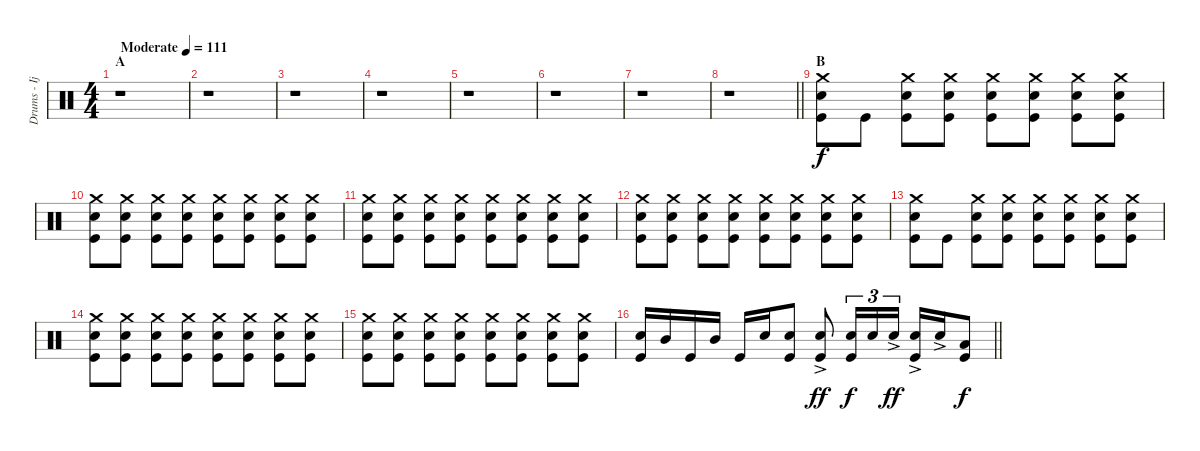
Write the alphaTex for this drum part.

\track ("Drums - Ijichi" "Drums - Ij") {instrument percussion}
\staff {score}
\articulation defaults
\ts (4 4)
\section ("" "A")
\tempo (111 "Moderate")
\clef neutral
\ks c
r.1{dy f} |
r.1 |
r.1 |
r.1 |
r.1 |
r.1 |
r.1 |
\barLineRight lightlight
r.1 |
\section ("" "B")
("Crash medium (hit)" "Electric Snare (hit)" "Kick (hit)").8 "Kick (hit)".8 ("Crash medium (hit)" "Electric Snare (hit)" "Kick (hit)").8{volume 7} ("Crash medium (hit)" "Electric Snare (hit)" "Kick (hit)").8{volume 13} ("Crash medium (hit)" "Electric Snare (hit)" "Kick (hit)").8 ("Crash medium (hit)" "Electric Snare (hit)" "Kick (hit)").8 ("Crash medium (hit)" "Electric Snare (hit)" "Kick (hit)").8 ("Crash medium (hit)" "Electric Snare (hit)" "Kick (hit)").8 |
("Crash medium (hit)" "Electric Snare (hit)" "Kick (hit)").8 ("Crash medium (hit)" "Electric Snare (hit)" "Kick (hit)").8 ("Crash medium (hit)" "Electric Snare (hit)" "Kick (hit)").8 ("Crash medium (hit)" "Electric Snare (hit)" "Kick (hit)").8 ("Crash medium (hit)" "Electric Snare (hit)" "Kick (hit)").8 ("Crash medium (hit)" "Electric Snare (hit)" "Kick (hit)").8 ("Crash medium (hit)" "Electric Snare (hit)" "Kick (hit)").8 ("Crash medium (hit)" "Electric Snare (hit)" "Kick (hit)").8 |
("Crash medium (hit)" "Electric Snare (hit)" "Kick (hit)").8 ("Crash medium (hit)" "Electric Snare (hit)" "Kick (hit)").8 ("Crash medium (hit)" "Electric Snare (hit)" "Kick (hit)").8 ("Crash medium (hit)" "Electric Snare (hit)" "Kick (hit)").8 ("Crash medium (hit)" "Electric Snare (hit)" "Kick (hit)").8 ("Crash medium (hit)" "Electric Snare (hit)" "Kick (hit)").8 ("Crash medium (hit)" "Electric Snare (hit)" "Kick (hit)").8 ("Crash medium (hit)" "Electric Snare (hit)" "Kick (hit)").8 |
("Crash medium (hit)" "Electric Snare (hit)" "Kick (hit)").8 ("Crash medium (hit)" "Electric Snare (hit)" "Kick (hit)").8 ("Crash medium (hit)" "Electric Snare (hit)" "Kick (hit)").8 ("Crash medium (hit)" "Electric Snare (hit)" "Kick (hit)").8 ("Crash medium (hit)" "Electric Snare (hit)" "Kick (hit)").8 ("Crash medium (hit)" "Electric Snare (hit)" "Kick (hit)").8 ("Crash medium (hit)" "Electric Snare (hit)" "Kick (hit)").8 ("Crash medium (hit)" "Electric Snare (hit)" "Kick (hit)").8 |
("Crash medium (hit)" "Electric Snare (hit)" "Kick (hit)").8 "Kick (hit)".8 ("Crash medium (hit)" "Electric Snare (hit)" "Kick (hit)").8{volume 9} ("Crash medium (hit)" "Electric Snare (hit)" "Kick (hit)").8{volume 13} ("Crash medium (hit)" "Electric Snare (hit)" "Kick (hit)").8 ("Crash medium (hit)" "Electric Snare (hit)" "Kick (hit)").8 ("Crash medium (hit)" "Electric Snare (hit)" "Kick (hit)").8 ("Crash medium (hit)" "Electric Snare (hit)" "Kick (hit)").8 |
("Crash medium (hit)" "Electric Snare (hit)" "Kick (hit)").8 ("Crash medium (hit)" "Electric Snare (hit)" "Kick (hit)").8 ("Crash medium (hit)" "Electric Snare (hit)" "Kick (hit)").8 ("Crash medium (hit)" "Electric Snare (hit)" "Kick (hit)").8 ("Crash medium (hit)" "Electric Snare (hit)" "Kick (hit)").8 ("Crash medium (hit)" "Electric Snare (hit)" "Kick (hit)").8 ("Crash medium (hit)" "Electric Snare (hit)" "Kick (hit)").8 ("Crash medium (hit)" "Electric Snare (hit)" "Kick (hit)").8 |
("Crash medium (hit)" "Electric Snare (hit)" "Kick (hit)").8 ("Crash medium (hit)" "Electric Snare (hit)" "Kick (hit)").8 ("Crash medium (hit)" "Electric Snare (hit)" "Kick (hit)").8 ("Crash medium (hit)" "Electric Snare (hit)" "Kick (hit)").8 ("Crash medium (hit)" "Electric Snare (hit)" "Kick (hit)").8 ("Crash medium (hit)" "Electric Snare (hit)" "Kick (hit)").8 ("Crash medium (hit)" "Electric Snare (hit)" "Kick (hit)").8 ("Crash medium (hit)" "Electric Snare (hit)" "Kick (hit)").8 |
\barLineRight lightlight
("Electric Snare (hit)" "Kick (hit)").16 "Mid Tom (hit)".16 "Kick (hit)".16 "Mid Tom (hit)".16 "Kick (hit)".16 "Electric Snare (hit)".16 ("Electric Snare (hit)" "Kick (hit)").8 ("Electric Snare (hit)"{ac} "Kick (hit)").8{dy ff} ("Electric Snare (hit)" "Kick (hit)").16{tu (3 2) dy f} "Electric Snare (hit)".16{tu (3 2)} "Electric Snare (hit)"{ac}.16{tu (3 2) dy ff} ("Electric Snare (hit)"{ac} "Kick (hit)").16 "Electric Snare (hit)"{ac}.16 ("Low Tom (hit)" "Kick (hit)").8{dy f}
